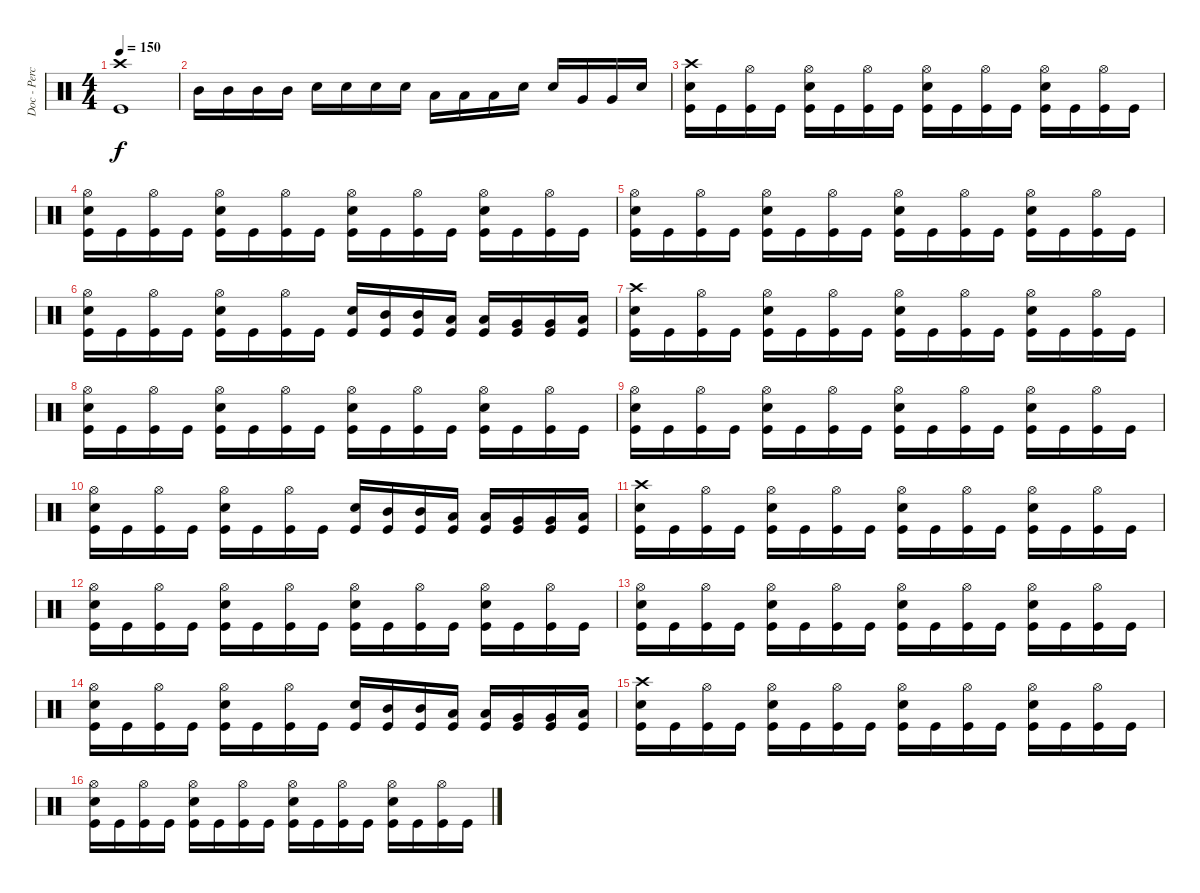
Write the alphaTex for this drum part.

\track ("Doc - Percussion" "Doc - Perc") {instrument percussion}
\staff {score}
\articulation defaults
\ts (4 4)
\tempo 150
\clef neutral
\ks c
("Crash high (hit)" "Kick (hit)").1{dy f} |
"Mid Tom (hit)".16 "Mid Tom (hit)".16 "Mid Tom (hit)".16 "Mid Tom (hit)".16 "Electric Snare (hit)".16 "Electric Snare (hit)".16 "Electric Snare (hit)".16 "Electric Snare (hit)".16 "Low Tom (hit)".16 "Low Tom (hit)".16 "Low Tom (hit)".16 "Electric Snare (hit)".16 "Electric Snare (hit)".16 "Very Low Tom (hit)".16 "Very Low Tom (hit)".16 "Electric Snare (hit)".16 |
("Crash high (hit)" "Electric Snare (hit)" "Kick (hit)").16 "Kick (hit)".16 ("Hi-Hat (open)" "Kick (hit)").16 "Kick (hit)".16 ("Hi-Hat (open)" "Electric Snare (hit)" "Kick (hit)").16 "Kick (hit)".16 ("Hi-Hat (open)" "Kick (hit)").16 "Kick (hit)".16 ("Hi-Hat (open)" "Electric Snare (hit)" "Kick (hit)").16 "Kick (hit)".16 ("Hi-Hat (open)" "Kick (hit)").16 "Kick (hit)".16 ("Hi-Hat (open)" "Electric Snare (hit)" "Kick (hit)").16 "Kick (hit)".16 ("Hi-Hat (open)" "Kick (hit)").16 "Kick (hit)".16 |
("Hi-Hat (open)" "Electric Snare (hit)" "Kick (hit)").16 "Kick (hit)".16 ("Hi-Hat (open)" "Kick (hit)").16 "Kick (hit)".16 ("Hi-Hat (open)" "Electric Snare (hit)" "Kick (hit)").16 "Kick (hit)".16 ("Hi-Hat (open)" "Kick (hit)").16 "Kick (hit)".16 ("Hi-Hat (open)" "Electric Snare (hit)" "Kick (hit)").16 "Kick (hit)".16 ("Hi-Hat (open)" "Kick (hit)").16 "Kick (hit)".16 ("Hi-Hat (open)" "Electric Snare (hit)" "Kick (hit)").16 "Kick (hit)".16 ("Hi-Hat (open)" "Kick (hit)").16 "Kick (hit)".16 |
("Hi-Hat (open)" "Electric Snare (hit)" "Kick (hit)").16 "Kick (hit)".16 ("Hi-Hat (open)" "Kick (hit)").16 "Kick (hit)".16 ("Hi-Hat (open)" "Electric Snare (hit)" "Kick (hit)").16 "Kick (hit)".16 ("Hi-Hat (open)" "Kick (hit)").16 "Kick (hit)".16 ("Hi-Hat (open)" "Electric Snare (hit)" "Kick (hit)").16 "Kick (hit)".16 ("Hi-Hat (open)" "Kick (hit)").16 "Kick (hit)".16 ("Hi-Hat (open)" "Electric Snare (hit)" "Kick (hit)").16 "Kick (hit)".16 ("Hi-Hat (open)" "Kick (hit)").16 "Kick (hit)".16 |
("Hi-Hat (open)" "Electric Snare (hit)" "Kick (hit)").16 "Kick (hit)".16 ("Hi-Hat (open)" "Kick (hit)").16 "Kick (hit)".16 ("Hi-Hat (open)" "Electric Snare (hit)" "Kick (hit)").16 "Kick (hit)".16 ("Hi-Hat (open)" "Kick (hit)").16 "Kick (hit)".16 ("Electric Snare (hit)" "Kick (hit)").16 ("Mid Tom (hit)" "Kick (hit)").16 ("Mid Tom (hit)" "Kick (hit)").16 ("Low Tom (hit)" "Kick (hit)").16 ("Low Tom (hit)" "Kick (hit)").16 ("Very Low Tom (hit)" "Kick (hit)").16 ("Very Low Tom (hit)" "Kick (hit)").16 ("Low Floor Tom (hit)" "Kick (hit)").16 |
("Crash high (hit)" "Electric Snare (hit)" "Kick (hit)").16 "Kick (hit)".16 ("Hi-Hat (open)" "Kick (hit)").16 "Kick (hit)".16 ("Hi-Hat (open)" "Electric Snare (hit)" "Kick (hit)").16 "Kick (hit)".16 ("Hi-Hat (open)" "Kick (hit)").16 "Kick (hit)".16 ("Hi-Hat (open)" "Electric Snare (hit)" "Kick (hit)").16 "Kick (hit)".16 ("Hi-Hat (open)" "Kick (hit)").16 "Kick (hit)".16 ("Hi-Hat (open)" "Electric Snare (hit)" "Kick (hit)").16 "Kick (hit)".16 ("Hi-Hat (open)" "Kick (hit)").16 "Kick (hit)".16 |
("Hi-Hat (open)" "Electric Snare (hit)" "Kick (hit)").16 "Kick (hit)".16 ("Hi-Hat (open)" "Kick (hit)").16 "Kick (hit)".16 ("Hi-Hat (open)" "Electric Snare (hit)" "Kick (hit)").16 "Kick (hit)".16 ("Hi-Hat (open)" "Kick (hit)").16 "Kick (hit)".16 ("Hi-Hat (open)" "Electric Snare (hit)" "Kick (hit)").16 "Kick (hit)".16 ("Hi-Hat (open)" "Kick (hit)").16 "Kick (hit)".16 ("Hi-Hat (open)" "Electric Snare (hit)" "Kick (hit)").16 "Kick (hit)".16 ("Hi-Hat (open)" "Kick (hit)").16 "Kick (hit)".16 |
("Hi-Hat (open)" "Electric Snare (hit)" "Kick (hit)").16 "Kick (hit)".16 ("Hi-Hat (open)" "Kick (hit)").16 "Kick (hit)".16 ("Hi-Hat (open)" "Electric Snare (hit)" "Kick (hit)").16 "Kick (hit)".16 ("Hi-Hat (open)" "Kick (hit)").16 "Kick (hit)".16 ("Hi-Hat (open)" "Electric Snare (hit)" "Kick (hit)").16 "Kick (hit)".16 ("Hi-Hat (open)" "Kick (hit)").16 "Kick (hit)".16 ("Hi-Hat (open)" "Electric Snare (hit)" "Kick (hit)").16 "Kick (hit)".16 ("Hi-Hat (open)" "Kick (hit)").16 "Kick (hit)".16 |
("Hi-Hat (open)" "Electric Snare (hit)" "Kick (hit)").16 "Kick (hit)".16 ("Hi-Hat (open)" "Kick (hit)").16 "Kick (hit)".16 ("Hi-Hat (open)" "Electric Snare (hit)" "Kick (hit)").16 "Kick (hit)".16 ("Hi-Hat (open)" "Kick (hit)").16 "Kick (hit)".16 ("Electric Snare (hit)" "Kick (hit)").16 ("Mid Tom (hit)" "Kick (hit)").16 ("Mid Tom (hit)" "Kick (hit)").16 ("Low Tom (hit)" "Kick (hit)").16 ("Low Tom (hit)" "Kick (hit)").16 ("Very Low Tom (hit)" "Kick (hit)").16 ("Very Low Tom (hit)" "Kick (hit)").16 ("Low Floor Tom (hit)" "Kick (hit)").16 |
("Crash high (hit)" "Electric Snare (hit)" "Kick (hit)").16 "Kick (hit)".16 ("Hi-Hat (open)" "Kick (hit)").16 "Kick (hit)".16 ("Hi-Hat (open)" "Electric Snare (hit)" "Kick (hit)").16 "Kick (hit)".16 ("Hi-Hat (open)" "Kick (hit)").16 "Kick (hit)".16 ("Hi-Hat (open)" "Electric Snare (hit)" "Kick (hit)").16 "Kick (hit)".16 ("Hi-Hat (open)" "Kick (hit)").16 "Kick (hit)".16 ("Hi-Hat (open)" "Electric Snare (hit)" "Kick (hit)").16 "Kick (hit)".16 ("Hi-Hat (open)" "Kick (hit)").16 "Kick (hit)".16 |
("Hi-Hat (open)" "Electric Snare (hit)" "Kick (hit)").16 "Kick (hit)".16 ("Hi-Hat (open)" "Kick (hit)").16 "Kick (hit)".16 ("Hi-Hat (open)" "Electric Snare (hit)" "Kick (hit)").16 "Kick (hit)".16 ("Hi-Hat (open)" "Kick (hit)").16 "Kick (hit)".16 ("Hi-Hat (open)" "Electric Snare (hit)" "Kick (hit)").16 "Kick (hit)".16 ("Hi-Hat (open)" "Kick (hit)").16 "Kick (hit)".16 ("Hi-Hat (open)" "Electric Snare (hit)" "Kick (hit)").16 "Kick (hit)".16 ("Hi-Hat (open)" "Kick (hit)").16 "Kick (hit)".16 |
("Hi-Hat (open)" "Electric Snare (hit)" "Kick (hit)").16 "Kick (hit)".16 ("Hi-Hat (open)" "Kick (hit)").16 "Kick (hit)".16 ("Hi-Hat (open)" "Electric Snare (hit)" "Kick (hit)").16 "Kick (hit)".16 ("Hi-Hat (open)" "Kick (hit)").16 "Kick (hit)".16 ("Hi-Hat (open)" "Electric Snare (hit)" "Kick (hit)").16 "Kick (hit)".16 ("Hi-Hat (open)" "Kick (hit)").16 "Kick (hit)".16 ("Hi-Hat (open)" "Electric Snare (hit)" "Kick (hit)").16 "Kick (hit)".16 ("Hi-Hat (open)" "Kick (hit)").16 "Kick (hit)".16 |
("Hi-Hat (open)" "Electric Snare (hit)" "Kick (hit)").16 "Kick (hit)".16 ("Hi-Hat (open)" "Kick (hit)").16 "Kick (hit)".16 ("Hi-Hat (open)" "Electric Snare (hit)" "Kick (hit)").16 "Kick (hit)".16 ("Hi-Hat (open)" "Kick (hit)").16 "Kick (hit)".16 ("Electric Snare (hit)" "Kick (hit)").16 ("Mid Tom (hit)" "Kick (hit)").16 ("Mid Tom (hit)" "Kick (hit)").16 ("Low Tom (hit)" "Kick (hit)").16 ("Low Tom (hit)" "Kick (hit)").16 ("Very Low Tom (hit)" "Kick (hit)").16 ("Very Low Tom (hit)" "Kick (hit)").16 ("Low Floor Tom (hit)" "Kick (hit)").16 |
("Crash high (hit)" "Electric Snare (hit)" "Kick (hit)").16 "Kick (hit)".16 ("Hi-Hat (open)" "Kick (hit)").16 "Kick (hit)".16 ("Hi-Hat (open)" "Electric Snare (hit)" "Kick (hit)").16 "Kick (hit)".16 ("Hi-Hat (open)" "Kick (hit)").16 "Kick (hit)".16 ("Hi-Hat (open)" "Electric Snare (hit)" "Kick (hit)").16 "Kick (hit)".16 ("Hi-Hat (open)" "Kick (hit)").16 "Kick (hit)".16 ("Hi-Hat (open)" "Electric Snare (hit)" "Kick (hit)").16 "Kick (hit)".16 ("Hi-Hat (open)" "Kick (hit)").16 "Kick (hit)".16 |
("Hi-Hat (open)" "Electric Snare (hit)" "Kick (hit)").16 "Kick (hit)".16 ("Hi-Hat (open)" "Kick (hit)").16 "Kick (hit)".16 ("Hi-Hat (open)" "Electric Snare (hit)" "Kick (hit)").16 "Kick (hit)".16 ("Hi-Hat (open)" "Kick (hit)").16 "Kick (hit)".16 ("Hi-Hat (open)" "Electric Snare (hit)" "Kick (hit)").16 "Kick (hit)".16 ("Hi-Hat (open)" "Kick (hit)").16 "Kick (hit)".16 ("Hi-Hat (open)" "Electric Snare (hit)" "Kick (hit)").16 "Kick (hit)".16 ("Hi-Hat (open)" "Kick (hit)").16 "Kick (hit)".16
